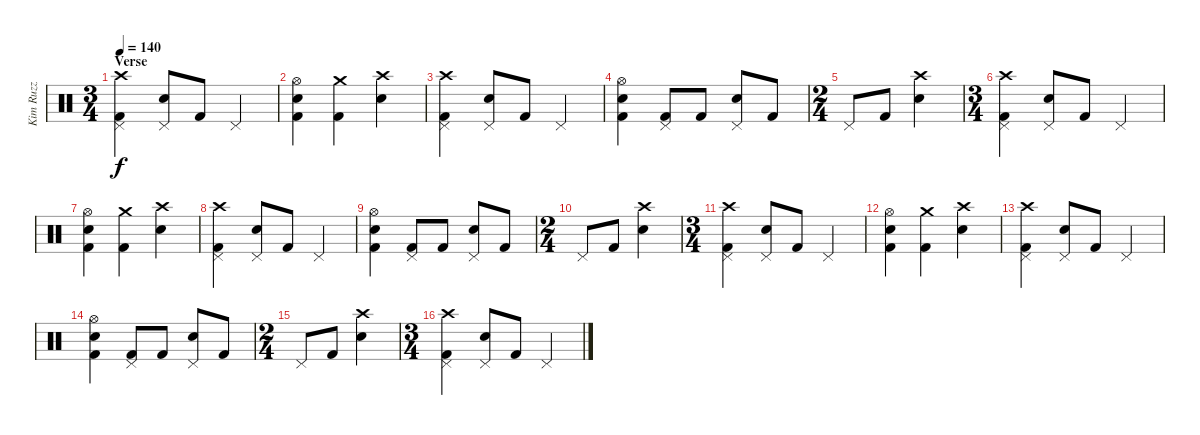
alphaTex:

\track ("Kim Ruzz" "Kim Ruzz") {instrument percussion}
\staff {score}
\articulation defaults
\ts (3 4)
\section ("" "Verse")
\tempo 140
\clef neutral
\ks c
("Crash high (hit)" "Pedal Hi-Hat (hit)" "Kick (hit) 2").4{dy f} ("Pedal Hi-Hat (hit)" "Snare (hit) 2").8 "Kick (hit) 2".8 "Pedal Hi-Hat (hit)".4 |
("Hi-Hat (open)" "Snare (hit) 2" "Kick (hit) 2").4 ("Crash medium (hit)" "Kick (hit) 2").4 ("Crash high (hit)" "Snare (hit) 2").4 |
("Crash high (hit)" "Pedal Hi-Hat (hit)" "Kick (hit) 2").4 ("Pedal Hi-Hat (hit)" "Snare (hit) 2").8 "Kick (hit) 2".8 "Pedal Hi-Hat (hit)".4 |
("Hi-Hat (open)" "Snare (hit) 2" "Kick (hit) 2").4 ("Pedal Hi-Hat (hit)" "Kick (hit) 2").8 "Kick (hit) 2".8 ("Pedal Hi-Hat (hit)" "Snare (hit) 2").8 "Kick (hit) 2".8 |
\ts (2 4)
"Pedal Hi-Hat (hit)".8 "Kick (hit) 2".8 ("Crash high (hit)" "Snare (hit) 2").4 |
\ts (3 4)
("Crash high (hit)" "Pedal Hi-Hat (hit)" "Kick (hit) 2").4 ("Pedal Hi-Hat (hit)" "Snare (hit) 2").8 "Kick (hit) 2".8 "Pedal Hi-Hat (hit)".4 |
("Hi-Hat (open)" "Snare (hit) 2" "Kick (hit) 2").4 ("Crash medium (hit)" "Kick (hit) 2").4 ("Crash high (hit)" "Snare (hit) 2").4 |
("Crash high (hit)" "Pedal Hi-Hat (hit)" "Kick (hit) 2").4 ("Pedal Hi-Hat (hit)" "Snare (hit) 2").8 "Kick (hit) 2".8 "Pedal Hi-Hat (hit)".4 |
("Hi-Hat (open)" "Snare (hit) 2" "Kick (hit) 2").4 ("Pedal Hi-Hat (hit)" "Kick (hit) 2").8 "Kick (hit) 2".8 ("Pedal Hi-Hat (hit)" "Snare (hit) 2").8 "Kick (hit) 2".8 |
\ts (2 4)
"Pedal Hi-Hat (hit)".8 "Kick (hit) 2".8 ("Crash high (hit)" "Snare (hit) 2").4 |
\ts (3 4)
("Crash high (hit)" "Pedal Hi-Hat (hit)" "Kick (hit) 2").4 ("Pedal Hi-Hat (hit)" "Snare (hit) 2").8 "Kick (hit) 2".8 "Pedal Hi-Hat (hit)".4 |
("Hi-Hat (open)" "Snare (hit) 2" "Kick (hit) 2").4 ("Crash medium (hit)" "Kick (hit) 2").4 ("Crash high (hit)" "Snare (hit) 2").4 |
("Crash high (hit)" "Pedal Hi-Hat (hit)" "Kick (hit) 2").4 ("Pedal Hi-Hat (hit)" "Snare (hit) 2").8 "Kick (hit) 2".8 "Pedal Hi-Hat (hit)".4 |
("Hi-Hat (open)" "Snare (hit) 2" "Kick (hit) 2").4 ("Pedal Hi-Hat (hit)" "Kick (hit) 2").8 "Kick (hit) 2".8 ("Pedal Hi-Hat (hit)" "Snare (hit) 2").8 "Kick (hit) 2".8 |
\ts (2 4)
"Pedal Hi-Hat (hit)".8 "Kick (hit) 2".8 ("Crash high (hit)" "Snare (hit) 2").4 |
\ts (3 4)
("Crash high (hit)" "Pedal Hi-Hat (hit)" "Kick (hit) 2").4 ("Pedal Hi-Hat (hit)" "Snare (hit) 2").8 "Kick (hit) 2".8 "Pedal Hi-Hat (hit)".4
